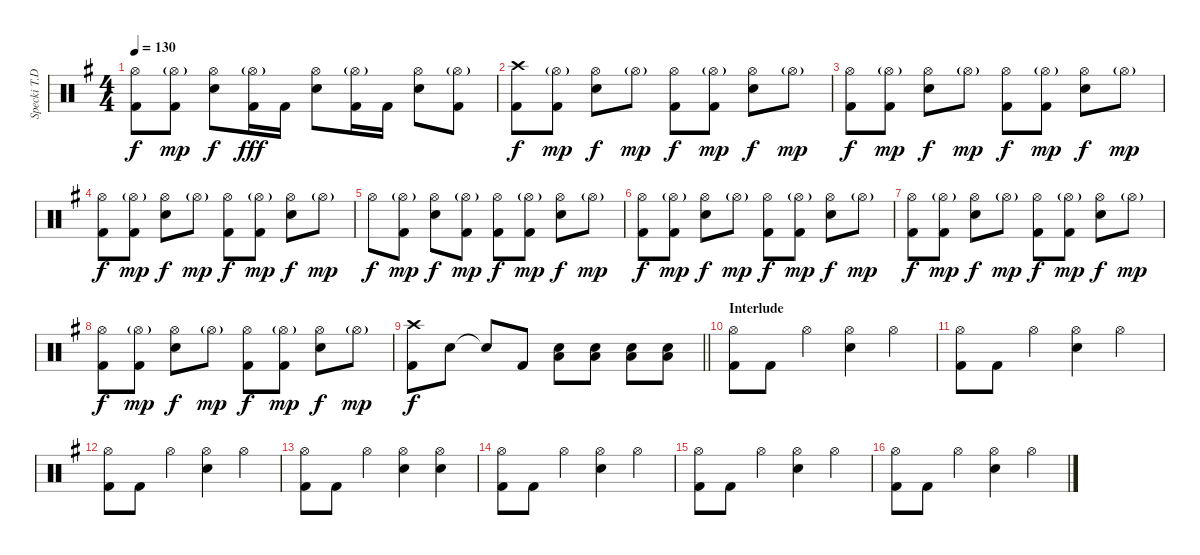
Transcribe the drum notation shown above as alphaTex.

\track ("Specki T.D. (Drums)" "Specki T.D") {instrument percussion}
\staff {score}
\articulation defaults
\ts (4 4)
\tempo 130
\clef neutral
\ks g
("Hi-Hat (open)" "Kick (hit) 2").8{dy f} ("Hi-Hat (open)"{g} "Kick (hit) 2").8{dy mp} ("Hi-Hat (open)" "Snare (hit) 2").8{dy f} ("Hi-Hat (open)"{g} "Kick (hit) 2").16{dy fff} "Kick (hit) 2".16 ("Hi-Hat (open)" "Snare (hit) 2").8 ("Hi-Hat (open)"{g} "Kick (hit) 2").16 "Kick (hit) 2".16 ("Hi-Hat (open)" "Snare (hit) 2").8 ("Hi-Hat (open)"{g} "Kick (hit) 2").8 |
("Crash high (hit)" "Kick (hit) 2").8{dy f} ("Hi-Hat (open)"{g} "Kick (hit) 2").8{dy mp} ("Hi-Hat (open)" "Snare (hit) 2").8{dy f} "Hi-Hat (open)"{g}.8{dy mp} ("Hi-Hat (open)" "Kick (hit) 2").8{dy f} ("Hi-Hat (open)"{g} "Kick (hit) 2").8{dy mp} ("Hi-Hat (open)" "Snare (hit) 2").8{dy f} "Hi-Hat (open)"{g}.8{dy mp} |
("Hi-Hat (open)" "Kick (hit) 2").8{dy f} ("Hi-Hat (open)"{g} "Kick (hit) 2").8{dy mp} ("Hi-Hat (open)" "Snare (hit) 2").8{dy f} "Hi-Hat (open)"{g}.8{dy mp} ("Hi-Hat (open)" "Kick (hit) 2").8{dy f} ("Hi-Hat (open)"{g} "Kick (hit) 2").8{dy mp} ("Hi-Hat (open)" "Snare (hit) 2").8{dy f} "Hi-Hat (open)"{g}.8{dy mp} |
("Hi-Hat (open)" "Kick (hit) 2").8{dy f} ("Hi-Hat (open)"{g} "Kick (hit) 2").8{dy mp} ("Hi-Hat (open)" "Snare (hit) 2").8{dy f} "Hi-Hat (open)"{g}.8{dy mp} ("Hi-Hat (open)" "Kick (hit) 2").8{dy f} ("Hi-Hat (open)"{g} "Kick (hit) 2").8{dy mp} ("Hi-Hat (open)" "Snare (hit) 2").8{dy f} "Hi-Hat (open)"{g}.8{dy mp} |
"Hi-Hat (open)".8{dy f} ("Hi-Hat (open)"{g} "Kick (hit) 2").8{dy mp} ("Hi-Hat (open)" "Snare (hit) 2").8{dy f} ("Hi-Hat (open)"{g} "Kick (hit) 2").8{dy mp} ("Hi-Hat (open)" "Kick (hit) 2").8{dy f} ("Hi-Hat (open)"{g} "Kick (hit) 2").8{dy mp} ("Hi-Hat (open)" "Snare (hit) 2").8{dy f} "Hi-Hat (open)"{g}.8{dy mp} |
("Hi-Hat (open)" "Kick (hit) 2").8{dy f} ("Hi-Hat (open)"{g} "Kick (hit) 2").8{dy mp} ("Hi-Hat (open)" "Snare (hit) 2").8{dy f} "Hi-Hat (open)"{g}.8{dy mp} ("Hi-Hat (open)" "Kick (hit) 2").8{dy f} ("Hi-Hat (open)"{g} "Kick (hit) 2").8{dy mp} ("Hi-Hat (open)" "Snare (hit) 2").8{dy f} "Hi-Hat (open)"{g}.8{dy mp} |
("Hi-Hat (open)" "Kick (hit) 2").8{dy f} ("Hi-Hat (open)"{g} "Kick (hit) 2").8{dy mp} ("Hi-Hat (open)" "Snare (hit) 2").8{dy f} "Hi-Hat (open)"{g}.8{dy mp} ("Hi-Hat (open)" "Kick (hit) 2").8{dy f} ("Hi-Hat (open)"{g} "Kick (hit) 2").8{dy mp} ("Hi-Hat (open)" "Snare (hit) 2").8{dy f} "Hi-Hat (open)"{g}.8{dy mp} |
("Hi-Hat (open)" "Kick (hit) 2").8{dy f} ("Hi-Hat (open)"{g} "Kick (hit) 2").8{dy mp} ("Hi-Hat (open)" "Snare (hit) 2").8{dy f} "Hi-Hat (open)"{g}.8{dy mp} ("Hi-Hat (open)" "Kick (hit) 2").8{dy f} ("Hi-Hat (open)"{g} "Kick (hit) 2").8{dy mp} ("Hi-Hat (open)" "Snare (hit) 2").8{dy f} "Hi-Hat (open)"{g}.8{dy mp} |
\barLineRight lightlight
("Crash high (hit)" "Kick (hit) 2").8{dy f} "Snare (hit) 2".8 "Snare (hit)"{t}.8 "Kick (hit) 2".8 ("Snare (hit) 2" "Low Tom (hit)").8 ("Snare (hit) 2" "Low Tom (hit)").8 ("Snare (hit) 2" "Low Floor Tom (hit)").8 ("Snare (hit) 2" "Low Floor Tom (hit)").8 |
\section ("" "Interlude")
("Hi-Hat (open)" "Kick (hit) 2").8 "Kick (hit) 2".8 "Hi-Hat (open)".4 ("Hi-Hat (open)" "Snare (hit) 2").4 "Hi-Hat (open)".4 |
("Hi-Hat (open)" "Kick (hit) 2").8 "Kick (hit) 2".8 "Hi-Hat (open)".4 ("Hi-Hat (open)" "Snare (hit) 2").4 "Hi-Hat (open)".4 |
("Hi-Hat (open)" "Kick (hit) 2").8 "Kick (hit) 2".8 "Hi-Hat (open)".4 ("Hi-Hat (open)" "Snare (hit) 2").4 "Hi-Hat (open)".4 |
("Hi-Hat (open)" "Kick (hit) 2").8 "Kick (hit) 2".8 "Hi-Hat (open)".4 ("Hi-Hat (open)" "Snare (hit) 2").4 ("Hi-Hat (open)" "Snare (hit) 2").4 |
("Hi-Hat (open)" "Kick (hit) 2").8 "Kick (hit) 2".8 "Hi-Hat (open)".4 ("Hi-Hat (open)" "Snare (hit) 2").4 "Hi-Hat (open)".4 |
("Hi-Hat (open)" "Kick (hit) 2").8 "Kick (hit) 2".8 "Hi-Hat (open)".4 ("Hi-Hat (open)" "Snare (hit) 2").4 "Hi-Hat (open)".4 |
("Hi-Hat (open)" "Kick (hit) 2").8 "Kick (hit) 2".8 "Hi-Hat (open)".4 ("Hi-Hat (open)" "Snare (hit) 2").4 "Hi-Hat (open)".4
